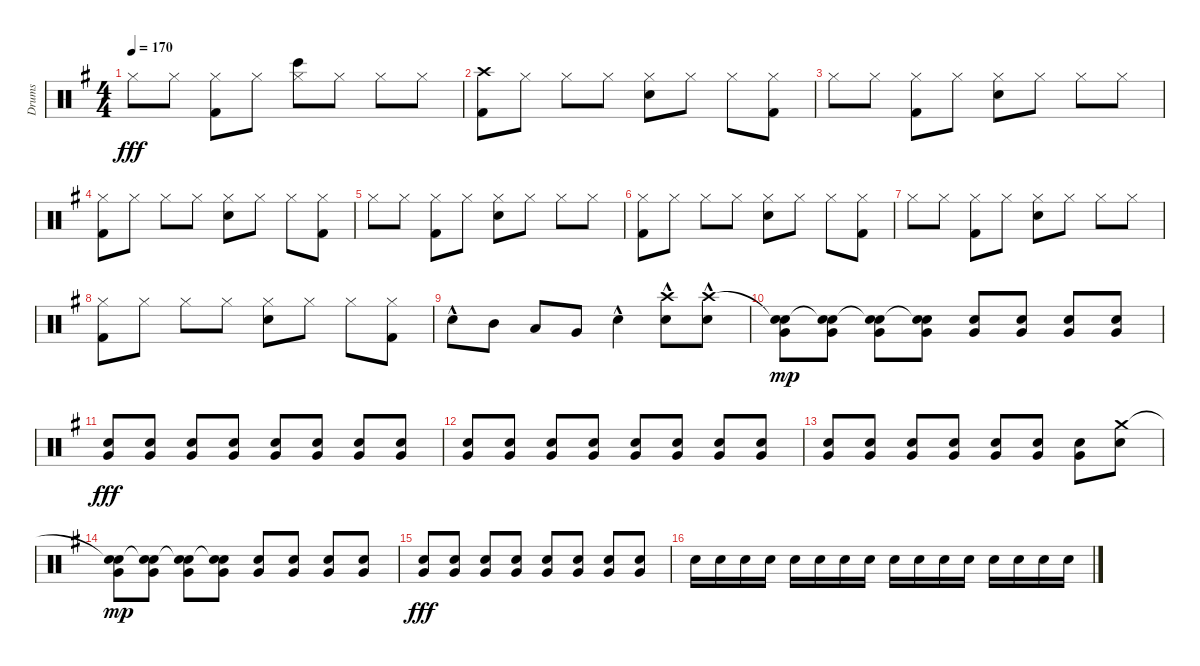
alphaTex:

\track ("Drums" "Drums") {instrument percussion}
\staff {score}
\articulation defaults
\ts (4 4)
\tempo 170
\clef neutral
\ks eminor "Hi-Hat (closed)".8{dy fff} "Hi-Hat (closed)".8
("Hi-Hat (closed)" "Kick (hit) 2").8 "Hi-Hat (closed)".8 ("Hi-Hat (closed)" "Bongo High (hit)").8 "Hi-Hat (closed)".8 "Hi-Hat (closed)".8 "Hi-Hat (closed)".8 |
("Crash high (hit)" "Kick (hit) 2").8 "Hi-Hat (closed)".8 "Hi-Hat (closed)".8 "Hi-Hat (closed)".8 ("Hi-Hat (closed)" "Electric Snare (hit)").8 "Hi-Hat (closed)".8 "Hi-Hat (closed)".8 ("Hi-Hat (closed)" "Kick (hit) 2").8 |
"Hi-Hat (closed)".8 "Hi-Hat (closed)".8 ("Hi-Hat (closed)" "Kick (hit) 2").8 "Hi-Hat (closed)".8 ("Hi-Hat (closed)" "Electric Snare (hit)").8 "Hi-Hat (closed)".8 "Hi-Hat (closed)".8 "Hi-Hat (closed)".8 |
("Hi-Hat (closed)" "Kick (hit) 2").8 "Hi-Hat (closed)".8 "Hi-Hat (closed)".8 "Hi-Hat (closed)".8 ("Hi-Hat (closed)" "Electric Snare (hit)").8 "Hi-Hat (closed)".8 "Hi-Hat (closed)".8 ("Hi-Hat (closed)" "Kick (hit) 2").8 |
"Hi-Hat (closed)".8 "Hi-Hat (closed)".8 ("Hi-Hat (closed)" "Kick (hit) 2").8 "Hi-Hat (closed)".8 ("Hi-Hat (closed)" "Electric Snare (hit)").8 "Hi-Hat (closed)".8 "Hi-Hat (closed)".8 "Hi-Hat (closed)".8 |
("Hi-Hat (closed)" "Kick (hit) 2").8 "Hi-Hat (closed)".8 "Hi-Hat (closed)".8 "Hi-Hat (closed)".8 ("Hi-Hat (closed)" "Electric Snare (hit)").8 "Hi-Hat (closed)".8 "Hi-Hat (closed)".8 ("Hi-Hat (closed)" "Kick (hit) 2").8 |
"Hi-Hat (closed)".8 "Hi-Hat (closed)".8 ("Hi-Hat (closed)" "Kick (hit) 2").8 "Hi-Hat (closed)".8 ("Hi-Hat (closed)" "Electric Snare (hit)").8 "Hi-Hat (closed)".8 "Hi-Hat (closed)".8 "Hi-Hat (closed)".8 |
("Hi-Hat (closed)" "Kick (hit) 2").8 "Hi-Hat (closed)".8 "Hi-Hat (closed)".8 "Hi-Hat (closed)".8 ("Hi-Hat (closed)" "Electric Snare (hit)").8 "Hi-Hat (closed)".8 "Hi-Hat (closed)".8 ("Hi-Hat (closed)" "Kick (hit) 2").8 |
"Electric Snare (hit)"{hac}.8 "Mid Tom (hit)".8 "Low Tom (hit)".8 "Very Low Tom (hit)".8 "Electric Snare (hit)"{hac}.4 ("Crash high (hit)" "Electric Snare (hit)"{hac}).8 ("Crash high (hit)" "Electric Snare (hit)"{hac}).8 |
("Snare (hit)"{t} "Electric Snare (hit)" "Very Low Tom (hit)").8{dy mp} ("Snare (hit)"{t} "Electric Snare (hit)" "Very Low Tom (hit)").8 ("Snare (hit)"{t} "Electric Snare (hit)" "Very Low Tom (hit)").8 ("Snare (hit)"{t} "Electric Snare (hit)" "Very Low Tom (hit)").8 ("Electric Snare (hit)" "Very Low Tom (hit)").8 ("Electric Snare (hit)" "Very Low Tom (hit)").8 ("Electric Snare (hit)" "Very Low Tom (hit)").8 ("Electric Snare (hit)" "Very Low Tom (hit)").8 |
("Electric Snare (hit)" "Very Low Tom (hit)").8{dy fff volume 10} ("Electric Snare (hit)" "Very Low Tom (hit)").8{volume 16} ("Electric Snare (hit)" "Very Low Tom (hit)").8 ("Electric Snare (hit)" "Very Low Tom (hit)").8 ("Electric Snare (hit)" "Very Low Tom (hit)").8 ("Electric Snare (hit)" "Very Low Tom (hit)").8 ("Electric Snare (hit)" "Very Low Tom (hit)").8 ("Electric Snare (hit)" "Very Low Tom (hit)").8 |
("Electric Snare (hit)" "Very Low Tom (hit)").8 ("Electric Snare (hit)" "Very Low Tom (hit)").8 ("Electric Snare (hit)" "Very Low Tom (hit)").8 ("Electric Snare (hit)" "Very Low Tom (hit)").8 ("Electric Snare (hit)" "Very Low Tom (hit)").8 ("Electric Snare (hit)" "Very Low Tom (hit)").8 ("Electric Snare (hit)" "Very Low Tom (hit)").8 ("Electric Snare (hit)" "Very Low Tom (hit)").8 |
("Electric Snare (hit)" "Very Low Tom (hit)").8 ("Electric Snare (hit)" "Very Low Tom (hit)").8 ("Electric Snare (hit)" "Very Low Tom (hit)").8 ("Electric Snare (hit)" "Very Low Tom (hit)").8 ("Electric Snare (hit)" "Very Low Tom (hit)").8 ("Electric Snare (hit)" "Very Low Tom (hit)").8 ("Electric Snare (hit)" "Very Low Tom (hit)").8 ("Crash medium (hit)" "Electric Snare (hit)").8 |
("Snare (hit)"{t} "Electric Snare (hit)" "Very Low Tom (hit)").8{dy mp} ("Snare (hit)"{t} "Electric Snare (hit)" "Very Low Tom (hit)").8 ("Snare (hit)"{t} "Electric Snare (hit)" "Very Low Tom (hit)").8 ("Snare (hit)"{t} "Electric Snare (hit)" "Very Low Tom (hit)").8 ("Electric Snare (hit)" "Very Low Tom (hit)").8 ("Electric Snare (hit)" "Very Low Tom (hit)").8 ("Electric Snare (hit)" "Very Low Tom (hit)").8 ("Electric Snare (hit)" "Very Low Tom (hit)").8 |
("Electric Snare (hit)" "Very Low Tom (hit)").8{dy fff volume 9} ("Electric Snare (hit)" "Very Low Tom (hit)").8{volume 16} ("Electric Snare (hit)" "Very Low Tom (hit)").8 ("Electric Snare (hit)" "Very Low Tom (hit)").8 ("Electric Snare (hit)" "Very Low Tom (hit)").8 ("Electric Snare (hit)" "Very Low Tom (hit)").8 ("Electric Snare (hit)" "Very Low Tom (hit)").8 ("Electric Snare (hit)" "Very Low Tom (hit)").8 |
"Electric Snare (hit)".16 "Electric Snare (hit)".16 "Electric Snare (hit)".16 "Electric Snare (hit)".16 "Electric Snare (hit)".16 "Electric Snare (hit)".16 "Electric Snare (hit)".16 "Electric Snare (hit)".16 "Electric Snare (hit)".16 "Electric Snare (hit)".16 "Electric Snare (hit)".16 "Electric Snare (hit)".16 "Electric Snare (hit)".16 "Electric Snare (hit)".16 "Electric Snare (hit)".16 "Electric Snare (hit)".16
